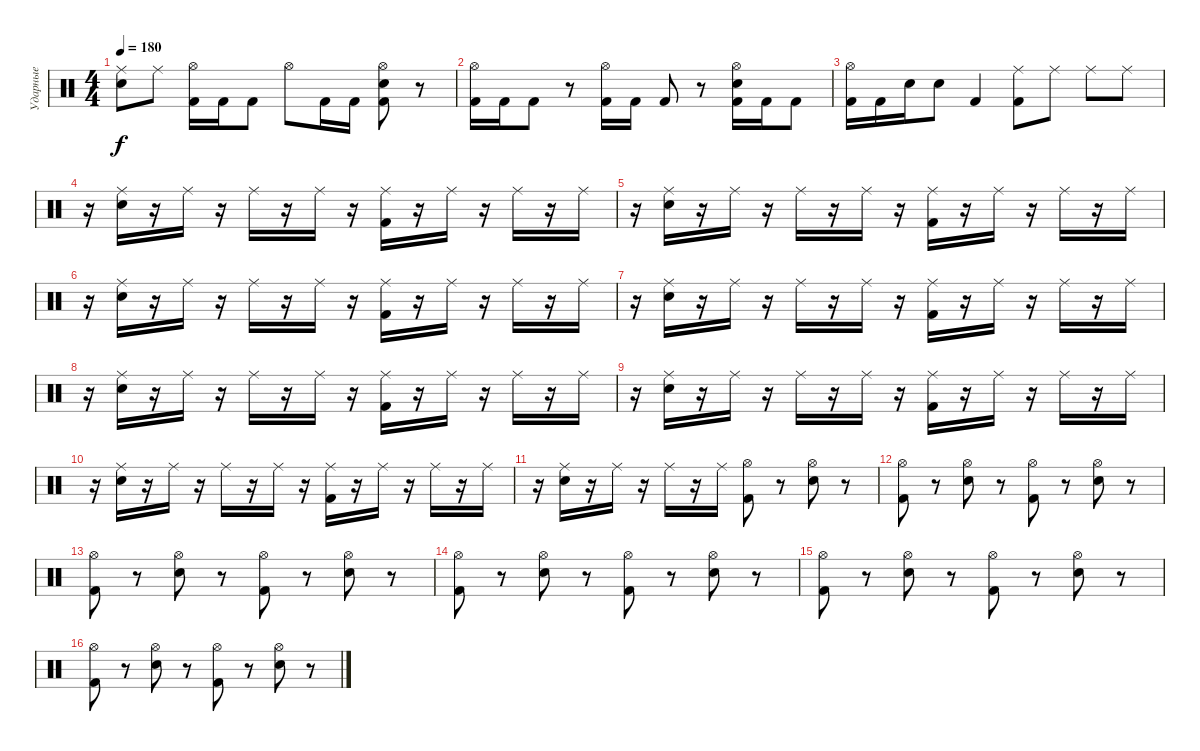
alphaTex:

\track ("Ударные" "Ударные") {instrument percussion}
\staff {score}
\articulation defaults
\ts (4 4)
\tempo 180
\clef neutral
\ks c
("Ride (middle)" "Electric Snare (hit)").8{dy f} "Ride (middle)".8 ("Kick (hit) 2" "Hi-Hat (open)").16 "Kick (hit) 2".16 "Kick (hit) 2".8 "Hi-Hat (open)".8 "Kick (hit) 2".16 "Kick (hit) 2".16 ("Kick (hit) 2" "Electric Snare (hit)" "Hi-Hat (open)").8 r.8 |
("Kick (hit) 2" "Hi-Hat (open)").16 "Kick (hit) 2".16 "Kick (hit) 2".8 r.8 ("Kick (hit) 2" "Hi-Hat (open)").16 "Kick (hit) 2".16 "Kick (hit) 2".8 r.8 ("Kick (hit) 2" "Electric Snare (hit)" "Hi-Hat (open)").16 "Kick (hit) 2".16 "Kick (hit) 2".8 |
("Kick (hit) 2" "Hi-Hat (open)").16 "Kick (hit) 2".16 "Electric Snare (hit)".16 "Electric Snare (hit)".8 "Kick (hit) 2".4 ("Kick (hit) 2" "Ride (middle)").8 "Ride (middle)".8 "Ride (middle)".8 "Ride (middle)".8 |
r.16 ("Ride (middle)" "Electric Snare (hit)").16 r.16 "Ride (middle)".16 r.16 "Ride (middle)".16 r.16 "Ride (middle)".16 r.16 ("Kick (hit) 2" "Ride (middle)").16 r.16 "Ride (middle)".16 r.16 "Ride (middle)".16 r.16 "Ride (middle)".16 |
r.16 ("Ride (middle)" "Electric Snare (hit)").16 r.16 "Ride (middle)".16 r.16 "Ride (middle)".16 r.16 "Ride (middle)".16 r.16 ("Kick (hit) 2" "Ride (middle)").16 r.16 "Ride (middle)".16 r.16 "Ride (middle)".16 r.16 "Ride (middle)".16 |
r.16 ("Ride (middle)" "Electric Snare (hit)").16 r.16 "Ride (middle)".16 r.16 "Ride (middle)".16 r.16 "Ride (middle)".16 r.16 ("Kick (hit) 2" "Ride (middle)").16 r.16 "Ride (middle)".16 r.16 "Ride (middle)".16 r.16 "Ride (middle)".16 |
r.16 ("Ride (middle)" "Electric Snare (hit)").16 r.16 "Ride (middle)".16 r.16 "Ride (middle)".16 r.16 "Ride (middle)".16 r.16 ("Kick (hit) 2" "Ride (middle)").16 r.16 "Ride (middle)".16 r.16 "Ride (middle)".16 r.16 "Ride (middle)".16 |
r.16 ("Ride (middle)" "Electric Snare (hit)").16 r.16 "Ride (middle)".16 r.16 "Ride (middle)".16 r.16 "Ride (middle)".16 r.16 ("Kick (hit) 2" "Ride (middle)").16 r.16 "Ride (middle)".16 r.16 "Ride (middle)".16 r.16 "Ride (middle)".16 |
r.16 ("Ride (middle)" "Electric Snare (hit)").16 r.16 "Ride (middle)".16 r.16 "Ride (middle)".16 r.16 "Ride (middle)".16 r.16 ("Kick (hit) 2" "Ride (middle)").16 r.16 "Ride (middle)".16 r.16 "Ride (middle)".16 r.16 "Ride (middle)".16 |
r.16 ("Ride (middle)" "Electric Snare (hit)").16 r.16 "Ride (middle)".16 r.16 "Ride (middle)".16 r.16 "Ride (middle)".16 r.16 ("Kick (hit) 2" "Ride (middle)").16 r.16 "Ride (middle)".16 r.16 "Ride (middle)".16 r.16 "Ride (middle)".16 |
r.16 ("Ride (middle)" "Electric Snare (hit)").16 r.16 "Ride (middle)".16 r.16 "Ride (middle)".16 r.16 "Ride (middle)".16 ("Kick (hit) 2" "Hi-Hat (open)").8 r.8 ("Electric Snare (hit)" "Hi-Hat (open)").8 r.8 |
("Kick (hit) 2" "Hi-Hat (open)").8 r.8 ("Electric Snare (hit)" "Hi-Hat (open)").8 r.8 ("Kick (hit) 2" "Hi-Hat (open)").8 r.8 ("Electric Snare (hit)" "Hi-Hat (open)").8 r.8 |
("Kick (hit) 2" "Hi-Hat (open)").8 r.8 ("Electric Snare (hit)" "Hi-Hat (open)").8 r.8 ("Kick (hit) 2" "Hi-Hat (open)").8 r.8 ("Electric Snare (hit)" "Hi-Hat (open)").8 r.8 |
("Kick (hit) 2" "Hi-Hat (open)").8 r.8 ("Electric Snare (hit)" "Hi-Hat (open)").8 r.8 ("Kick (hit) 2" "Hi-Hat (open)").8 r.8 ("Electric Snare (hit)" "Hi-Hat (open)").8 r.8 |
("Kick (hit) 2" "Hi-Hat (open)").8 r.8 ("Electric Snare (hit)" "Hi-Hat (open)").8 r.8 ("Kick (hit) 2" "Hi-Hat (open)").8 r.8 ("Electric Snare (hit)" "Hi-Hat (open)").8 r.8 |
("Kick (hit) 2" "Hi-Hat (open)").8 r.8 ("Electric Snare (hit)" "Hi-Hat (open)").8 r.8 ("Kick (hit) 2" "Hi-Hat (open)").8 r.8 ("Electric Snare (hit)" "Hi-Hat (open)").8 r.8
